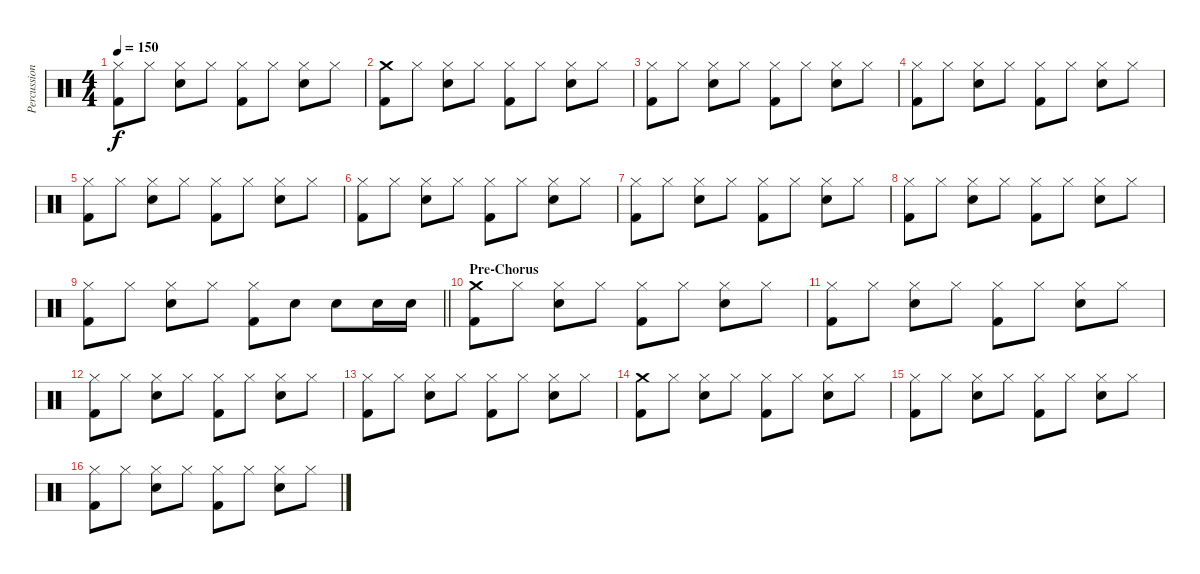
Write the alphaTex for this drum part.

\track ("Percussion" "Percussion") {instrument percussion}
\staff {score}
\articulation defaults
\ts (4 4)
\tempo 150
\clef neutral
\ks c
("Hi-Hat (closed)" "Kick (hit) 2").8{dy f} "Hi-Hat (closed)".8 ("Hi-Hat (closed)" "Snare (hit) 2").8 "Hi-Hat (closed)".8 ("Hi-Hat (closed)" "Kick (hit) 2").8 "Hi-Hat (closed)".8 ("Hi-Hat (closed)" "Snare (hit) 2").8 "Hi-Hat (closed)".8 |
("Crash medium (hit)" "Kick (hit) 2").8 "Hi-Hat (closed)".8 ("Hi-Hat (closed)" "Snare (hit) 2").8 "Hi-Hat (closed)".8 ("Hi-Hat (closed)" "Kick (hit) 2").8 "Hi-Hat (closed)".8 ("Hi-Hat (closed)" "Snare (hit) 2").8 "Hi-Hat (closed)".8 |
("Hi-Hat (closed)" "Kick (hit) 2").8 "Hi-Hat (closed)".8 ("Hi-Hat (closed)" "Snare (hit) 2").8 "Hi-Hat (closed)".8 ("Hi-Hat (closed)" "Kick (hit) 2").8 "Hi-Hat (closed)".8 ("Hi-Hat (closed)" "Snare (hit) 2").8 "Hi-Hat (closed)".8 |
("Hi-Hat (closed)" "Kick (hit) 2").8 "Hi-Hat (closed)".8 ("Hi-Hat (closed)" "Snare (hit) 2").8 "Hi-Hat (closed)".8 ("Hi-Hat (closed)" "Kick (hit) 2").8 "Hi-Hat (closed)".8 ("Hi-Hat (closed)" "Snare (hit) 2").8 "Hi-Hat (closed)".8 |
("Hi-Hat (closed)" "Kick (hit) 2").8 "Hi-Hat (closed)".8 ("Hi-Hat (closed)" "Snare (hit) 2").8 "Hi-Hat (closed)".8 ("Hi-Hat (closed)" "Kick (hit) 2").8 "Hi-Hat (closed)".8 ("Hi-Hat (closed)" "Snare (hit) 2").8 "Hi-Hat (closed)".8 |
("Hi-Hat (closed)" "Kick (hit) 2").8 "Hi-Hat (closed)".8 ("Hi-Hat (closed)" "Snare (hit) 2").8 "Hi-Hat (closed)".8 ("Hi-Hat (closed)" "Kick (hit) 2").8 "Hi-Hat (closed)".8 ("Hi-Hat (closed)" "Snare (hit) 2").8 "Hi-Hat (closed)".8 |
("Hi-Hat (closed)" "Kick (hit) 2").8 "Hi-Hat (closed)".8 ("Hi-Hat (closed)" "Snare (hit) 2").8 "Hi-Hat (closed)".8 ("Hi-Hat (closed)" "Kick (hit) 2").8 "Hi-Hat (closed)".8 ("Hi-Hat (closed)" "Snare (hit) 2").8 "Hi-Hat (closed)".8 |
("Hi-Hat (closed)" "Kick (hit) 2").8 "Hi-Hat (closed)".8 ("Hi-Hat (closed)" "Snare (hit) 2").8 "Hi-Hat (closed)".8 ("Hi-Hat (closed)" "Kick (hit) 2").8 "Hi-Hat (closed)".8 ("Hi-Hat (closed)" "Snare (hit) 2").8 "Hi-Hat (closed)".8 |
\barLineRight lightlight
("Hi-Hat (closed)" "Kick (hit) 2").8 "Hi-Hat (closed)".8 ("Hi-Hat (closed)" "Snare (hit) 2").8 "Hi-Hat (closed)".8 ("Hi-Hat (closed)" "Kick (hit) 2").8 "Snare (hit) 2".8 "Snare (hit) 2".8 "Snare (hit) 2".16 "Snare (hit) 2".16 |
\section ("" "Pre-Chorus")
("Crash medium (hit)" "Kick (hit) 2").8 "Hi-Hat (closed)".8 ("Hi-Hat (closed)" "Snare (hit) 2").8 "Hi-Hat (closed)".8 ("Hi-Hat (closed)" "Kick (hit) 2").8 "Hi-Hat (closed)".8 ("Hi-Hat (closed)" "Snare (hit) 2").8 "Hi-Hat (closed)".8 |
("Hi-Hat (closed)" "Kick (hit) 2").8 "Hi-Hat (closed)".8 ("Hi-Hat (closed)" "Snare (hit) 2").8 "Hi-Hat (closed)".8 ("Hi-Hat (closed)" "Kick (hit) 2").8 "Hi-Hat (closed)".8 ("Hi-Hat (closed)" "Snare (hit) 2").8 "Hi-Hat (closed)".8 |
("Hi-Hat (closed)" "Kick (hit) 2").8 "Hi-Hat (closed)".8 ("Hi-Hat (closed)" "Snare (hit) 2").8 "Hi-Hat (closed)".8 ("Hi-Hat (closed)" "Kick (hit) 2").8 "Hi-Hat (closed)".8 ("Hi-Hat (closed)" "Snare (hit) 2").8 "Hi-Hat (closed)".8 |
("Hi-Hat (closed)" "Kick (hit) 2").8 "Hi-Hat (closed)".8 ("Hi-Hat (closed)" "Snare (hit) 2").8 "Hi-Hat (closed)".8 ("Hi-Hat (closed)" "Kick (hit) 2").8 "Hi-Hat (closed)".8 ("Hi-Hat (closed)" "Snare (hit) 2").8 "Hi-Hat (closed)".8 |
("Crash medium (hit)" "Kick (hit) 2").8 "Hi-Hat (closed)".8 ("Hi-Hat (closed)" "Snare (hit) 2").8 "Hi-Hat (closed)".8 ("Hi-Hat (closed)" "Kick (hit) 2").8 "Hi-Hat (closed)".8 ("Hi-Hat (closed)" "Snare (hit) 2").8 "Hi-Hat (closed)".8 |
("Hi-Hat (closed)" "Kick (hit) 2").8 "Hi-Hat (closed)".8 ("Hi-Hat (closed)" "Snare (hit) 2").8 "Hi-Hat (closed)".8 ("Hi-Hat (closed)" "Kick (hit) 2").8 "Hi-Hat (closed)".8 ("Hi-Hat (closed)" "Snare (hit) 2").8 "Hi-Hat (closed)".8 |
("Hi-Hat (closed)" "Kick (hit) 2").8 "Hi-Hat (closed)".8 ("Hi-Hat (closed)" "Snare (hit) 2").8 "Hi-Hat (closed)".8 ("Hi-Hat (closed)" "Kick (hit) 2").8 "Hi-Hat (closed)".8 ("Hi-Hat (closed)" "Snare (hit) 2").8 "Hi-Hat (closed)".8
